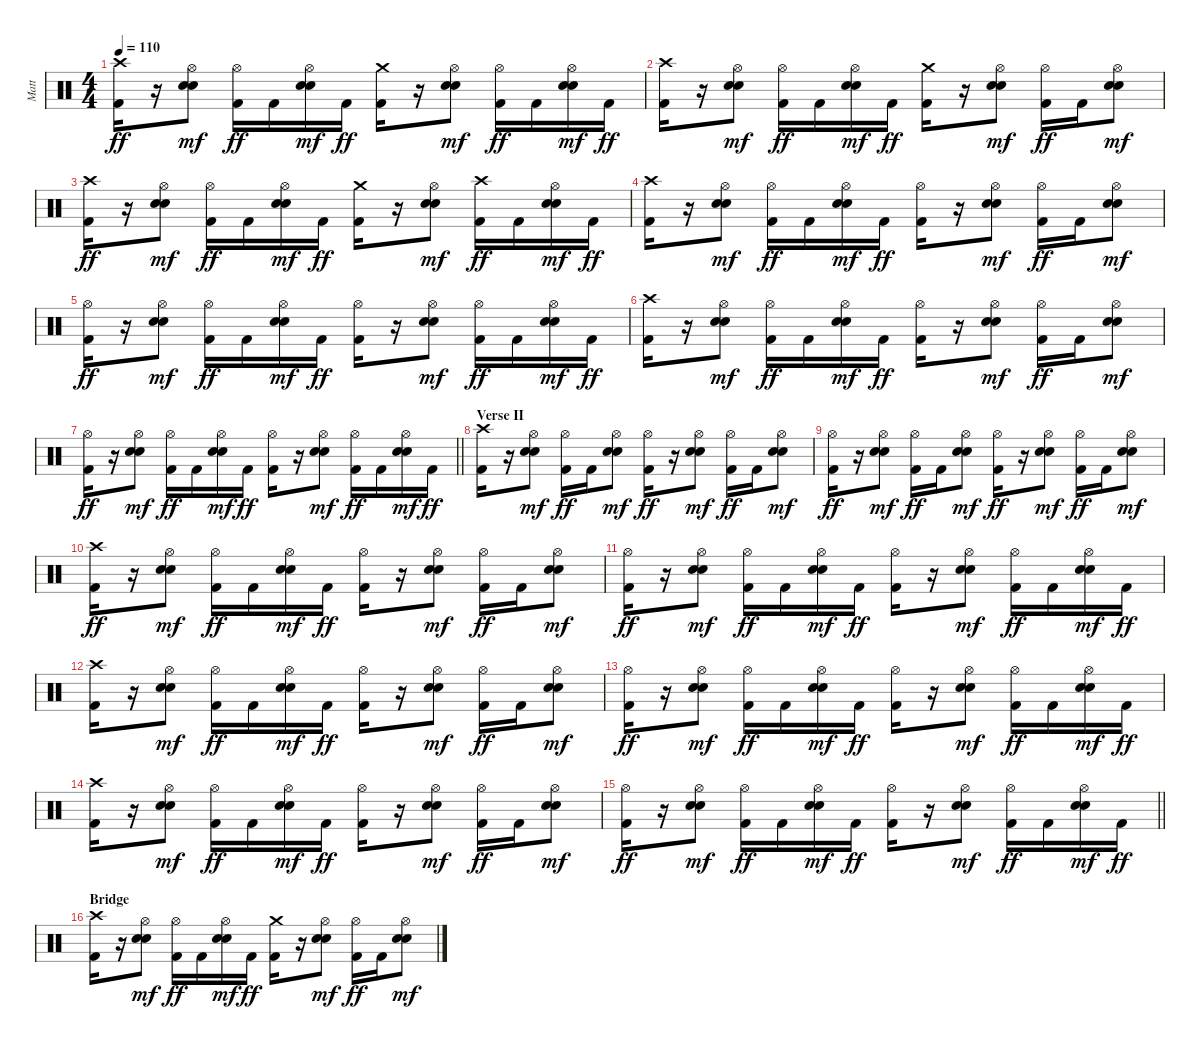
\track ("Matt" "Matt") {instrument percussion}
\staff {score}
\articulation defaults
\ts (4 4)
\tempo 110
\clef neutral
\ks c
("Crash high (hit)" "Kick (hit) 2").16{dy ff} r.16 ("Hi-Hat (open)" "Electric Snare (hit)" "Snare (hit) 2").8{dy mf} ("Hi-Hat (open)" "Kick (hit) 2").16{dy ff} "Kick (hit) 2".16 ("Hi-Hat (open)" "Electric Snare (hit)" "Snare (hit) 2").16{dy mf} "Kick (hit) 2".16{dy ff} ("Crash medium (hit)" "Kick (hit) 2").16 r.16 ("Hi-Hat (open)" "Electric Snare (hit)" "Snare (hit) 2").8{dy mf} ("Hi-Hat (open)" "Kick (hit) 2").16{dy ff} "Kick (hit) 2".16 ("Hi-Hat (open)" "Electric Snare (hit)" "Snare (hit) 2").16{dy mf} "Kick (hit) 2".16{dy ff} |
("Crash high (hit)" "Kick (hit) 2").16 r.16 ("Hi-Hat (open)" "Electric Snare (hit)" "Snare (hit) 2").8{dy mf} ("Hi-Hat (open)" "Kick (hit) 2").16{dy ff} "Kick (hit) 2".16 ("Hi-Hat (open)" "Electric Snare (hit)" "Snare (hit) 2").16{dy mf} "Kick (hit) 2".16{dy ff} ("Crash medium (hit)" "Kick (hit) 2").16 r.16 ("Hi-Hat (open)" "Electric Snare (hit)" "Snare (hit) 2").8{dy mf} ("Hi-Hat (open)" "Kick (hit) 2").16{dy ff} "Kick (hit) 2".16 ("Hi-Hat (open)" "Electric Snare (hit)" "Snare (hit) 2").8{dy mf} |
("Crash high (hit)" "Kick (hit) 2").16{dy ff} r.16 ("Hi-Hat (open)" "Electric Snare (hit)" "Snare (hit) 2").8{dy mf} ("Hi-Hat (open)" "Kick (hit) 2").16{dy ff} "Kick (hit) 2".16 ("Hi-Hat (open)" "Electric Snare (hit)" "Snare (hit) 2").16{dy mf} "Kick (hit) 2".16{dy ff} ("Crash medium (hit)" "Kick (hit) 2").16 r.16 ("Hi-Hat (open)" "Electric Snare (hit)" "Snare (hit) 2").8{dy mf} ("Crash high (hit)" "Kick (hit) 2").16{dy ff} "Kick (hit) 2".16 ("Hi-Hat (open)" "Electric Snare (hit)" "Snare (hit) 2").16{dy mf} "Kick (hit) 2".16{dy ff} |
("Crash high (hit)" "Kick (hit) 2").16 r.16 ("Hi-Hat (open)" "Electric Snare (hit)" "Snare (hit) 2").8{dy mf} ("Hi-Hat (open)" "Kick (hit) 2").16{dy ff} "Kick (hit) 2".16 ("Hi-Hat (open)" "Electric Snare (hit)" "Snare (hit) 2").16{dy mf} "Kick (hit) 2".16{dy ff} ("Hi-Hat (open)" "Kick (hit) 2").16 r.16 ("Hi-Hat (open)" "Electric Snare (hit)" "Snare (hit) 2").8{dy mf} ("Hi-Hat (open)" "Kick (hit) 2").16{dy ff} "Kick (hit) 2".16 ("Hi-Hat (open)" "Electric Snare (hit)" "Snare (hit) 2").8{dy mf} |
("Hi-Hat (open)" "Kick (hit) 2").16{dy ff} r.16 ("Hi-Hat (open)" "Electric Snare (hit)" "Snare (hit) 2").8{dy mf} ("Hi-Hat (open)" "Kick (hit) 2").16{dy ff} "Kick (hit) 2".16 ("Hi-Hat (open)" "Electric Snare (hit)" "Snare (hit) 2").16{dy mf} "Kick (hit) 2".16{dy ff} ("Hi-Hat (open)" "Kick (hit) 2").16 r.16 ("Hi-Hat (open)" "Electric Snare (hit)" "Snare (hit) 2").8{dy mf} ("Hi-Hat (open)" "Kick (hit) 2").16{dy ff} "Kick (hit) 2".16 ("Hi-Hat (open)" "Electric Snare (hit)" "Snare (hit) 2").16{dy mf} "Kick (hit) 2".16{dy ff} |
("Crash high (hit)" "Kick (hit) 2").16 r.16 ("Hi-Hat (open)" "Electric Snare (hit)" "Snare (hit) 2").8{dy mf} ("Hi-Hat (open)" "Kick (hit) 2").16{dy ff} "Kick (hit) 2".16 ("Hi-Hat (open)" "Electric Snare (hit)" "Snare (hit) 2").16{dy mf} "Kick (hit) 2".16{dy ff} ("Hi-Hat (open)" "Kick (hit) 2").16 r.16 ("Hi-Hat (open)" "Electric Snare (hit)" "Snare (hit) 2").8{dy mf} ("Hi-Hat (open)" "Kick (hit) 2").16{dy ff} "Kick (hit) 2".16 ("Hi-Hat (open)" "Electric Snare (hit)" "Snare (hit) 2").8{dy mf} |
\barLineRight lightlight
("Hi-Hat (open)" "Kick (hit) 2").16{dy ff} r.16 ("Hi-Hat (open)" "Electric Snare (hit)" "Snare (hit) 2").8{dy mf} ("Hi-Hat (open)" "Kick (hit) 2").16{dy ff} "Kick (hit) 2".16 ("Hi-Hat (open)" "Electric Snare (hit)" "Snare (hit) 2").16{dy mf} "Kick (hit) 2".16{dy ff} ("Hi-Hat (open)" "Kick (hit) 2").16 r.16 ("Hi-Hat (open)" "Electric Snare (hit)" "Snare (hit) 2").8{dy mf} ("Hi-Hat (open)" "Kick (hit) 2").16{dy ff} "Kick (hit) 2".16 ("Hi-Hat (open)" "Electric Snare (hit)" "Snare (hit) 2").16{dy mf} "Kick (hit) 2".16{dy ff} |
\section ("" "Verse II")
("Crash high (hit)" "Kick (hit) 2").16 r.16 ("Hi-Hat (open)" "Electric Snare (hit)" "Snare (hit) 2").8{dy mf} ("Hi-Hat (open)" "Kick (hit) 2").16{dy ff} "Kick (hit) 2".16 ("Hi-Hat (open)" "Electric Snare (hit)" "Snare (hit) 2").8{dy mf} ("Hi-Hat (open)" "Kick (hit) 2").16{dy ff} r.16 ("Hi-Hat (open)" "Electric Snare (hit)" "Snare (hit) 2").8{dy mf} ("Hi-Hat (open)" "Kick (hit) 2").16{dy ff} "Kick (hit) 2".16 ("Hi-Hat (open)" "Electric Snare (hit)" "Snare (hit) 2").8{dy mf} |
("Hi-Hat (open)" "Kick (hit) 2").16{dy ff} r.16 ("Hi-Hat (open)" "Electric Snare (hit)" "Snare (hit) 2").8{dy mf} ("Hi-Hat (open)" "Kick (hit) 2").16{dy ff} "Kick (hit) 2".16 ("Hi-Hat (open)" "Electric Snare (hit)" "Snare (hit) 2").8{dy mf} ("Hi-Hat (open)" "Kick (hit) 2").16{dy ff} r.16 ("Hi-Hat (open)" "Electric Snare (hit)" "Snare (hit) 2").8{dy mf} ("Hi-Hat (open)" "Kick (hit) 2").16{dy ff} "Kick (hit) 2".16 ("Hi-Hat (open)" "Electric Snare (hit)" "Snare (hit) 2").8{dy mf} |
("Crash high (hit)" "Kick (hit) 2").16{dy ff} r.16 ("Hi-Hat (open)" "Electric Snare (hit)" "Snare (hit) 2").8{dy mf} ("Hi-Hat (open)" "Kick (hit) 2").16{dy ff} "Kick (hit) 2".16 ("Hi-Hat (open)" "Electric Snare (hit)" "Snare (hit) 2").16{dy mf} "Kick (hit) 2".16{dy ff} ("Hi-Hat (open)" "Kick (hit) 2").16 r.16 ("Hi-Hat (open)" "Electric Snare (hit)" "Snare (hit) 2").8{dy mf} ("Hi-Hat (open)" "Kick (hit) 2").16{dy ff} "Kick (hit) 2".16 ("Hi-Hat (open)" "Electric Snare (hit)" "Snare (hit) 2").8{dy mf} |
("Hi-Hat (open)" "Kick (hit) 2").16{dy ff} r.16 ("Hi-Hat (open)" "Electric Snare (hit)" "Snare (hit) 2").8{dy mf} ("Hi-Hat (open)" "Kick (hit) 2").16{dy ff} "Kick (hit) 2".16 ("Hi-Hat (open)" "Electric Snare (hit)" "Snare (hit) 2").16{dy mf} "Kick (hit) 2".16{dy ff} ("Hi-Hat (open)" "Kick (hit) 2").16 r.16 ("Hi-Hat (open)" "Electric Snare (hit)" "Snare (hit) 2").8{dy mf} ("Hi-Hat (open)" "Kick (hit) 2").16{dy ff} "Kick (hit) 2".16 ("Hi-Hat (open)" "Electric Snare (hit)" "Snare (hit) 2").16{dy mf} "Kick (hit) 2".16{dy ff} |
("Crash high (hit)" "Kick (hit) 2").16 r.16 ("Hi-Hat (open)" "Electric Snare (hit)" "Snare (hit) 2").8{dy mf} ("Hi-Hat (open)" "Kick (hit) 2").16{dy ff} "Kick (hit) 2".16 ("Hi-Hat (open)" "Electric Snare (hit)" "Snare (hit) 2").16{dy mf} "Kick (hit) 2".16{dy ff} ("Hi-Hat (open)" "Kick (hit) 2").16 r.16 ("Hi-Hat (open)" "Electric Snare (hit)" "Snare (hit) 2").8{dy mf} ("Hi-Hat (open)" "Kick (hit) 2").16{dy ff} "Kick (hit) 2".16 ("Hi-Hat (open)" "Electric Snare (hit)" "Snare (hit) 2").8{dy mf} |
("Hi-Hat (open)" "Kick (hit) 2").16{dy ff} r.16 ("Hi-Hat (open)" "Electric Snare (hit)" "Snare (hit) 2").8{dy mf} ("Hi-Hat (open)" "Kick (hit) 2").16{dy ff} "Kick (hit) 2".16 ("Hi-Hat (open)" "Electric Snare (hit)" "Snare (hit) 2").16{dy mf} "Kick (hit) 2".16{dy ff} ("Hi-Hat (open)" "Kick (hit) 2").16 r.16 ("Hi-Hat (open)" "Electric Snare (hit)" "Snare (hit) 2").8{dy mf} ("Hi-Hat (open)" "Kick (hit) 2").16{dy ff} "Kick (hit) 2".16 ("Hi-Hat (open)" "Electric Snare (hit)" "Snare (hit) 2").16{dy mf} "Kick (hit) 2".16{dy ff} |
("Crash high (hit)" "Kick (hit) 2").16 r.16 ("Hi-Hat (open)" "Electric Snare (hit)" "Snare (hit) 2").8{dy mf} ("Hi-Hat (open)" "Kick (hit) 2").16{dy ff} "Kick (hit) 2".16 ("Hi-Hat (open)" "Electric Snare (hit)" "Snare (hit) 2").16{dy mf} "Kick (hit) 2".16{dy ff} ("Hi-Hat (open)" "Kick (hit) 2").16 r.16 ("Hi-Hat (open)" "Electric Snare (hit)" "Snare (hit) 2").8{dy mf} ("Hi-Hat (open)" "Kick (hit) 2").16{dy ff} "Kick (hit) 2".16 ("Hi-Hat (open)" "Electric Snare (hit)" "Snare (hit) 2").8{dy mf} |
\barLineRight lightlight
("Hi-Hat (open)" "Kick (hit) 2").16{dy ff} r.16 ("Hi-Hat (open)" "Electric Snare (hit)" "Snare (hit) 2").8{dy mf} ("Hi-Hat (open)" "Kick (hit) 2").16{dy ff} "Kick (hit) 2".16 ("Hi-Hat (open)" "Electric Snare (hit)" "Snare (hit) 2").16{dy mf} "Kick (hit) 2".16{dy ff} ("Hi-Hat (open)" "Kick (hit) 2").16 r.16 ("Hi-Hat (open)" "Electric Snare (hit)" "Snare (hit) 2").8{dy mf} ("Hi-Hat (open)" "Kick (hit) 2").16{dy ff} "Kick (hit) 2".16 ("Hi-Hat (open)" "Electric Snare (hit)" "Snare (hit) 2").16{dy mf} "Kick (hit) 2".16{dy ff} |
\section ("" "Bridge")
("Crash high (hit)" "Kick (hit) 2").16 r.16 ("Hi-Hat (open)" "Electric Snare (hit)" "Snare (hit) 2").8{dy mf} ("Hi-Hat (open)" "Kick (hit) 2").16{dy ff} "Kick (hit) 2".16 ("Hi-Hat (open)" "Electric Snare (hit)" "Snare (hit) 2").16{dy mf} "Kick (hit) 2".16{dy ff} ("Crash medium (hit)" "Kick (hit) 2").16 r.16 ("Hi-Hat (open)" "Electric Snare (hit)" "Snare (hit) 2").8{dy mf} ("Hi-Hat (open)" "Kick (hit) 2").16{dy ff} "Kick (hit) 2".16 ("Hi-Hat (open)" "Electric Snare (hit)" "Snare (hit) 2").8{dy mf}
